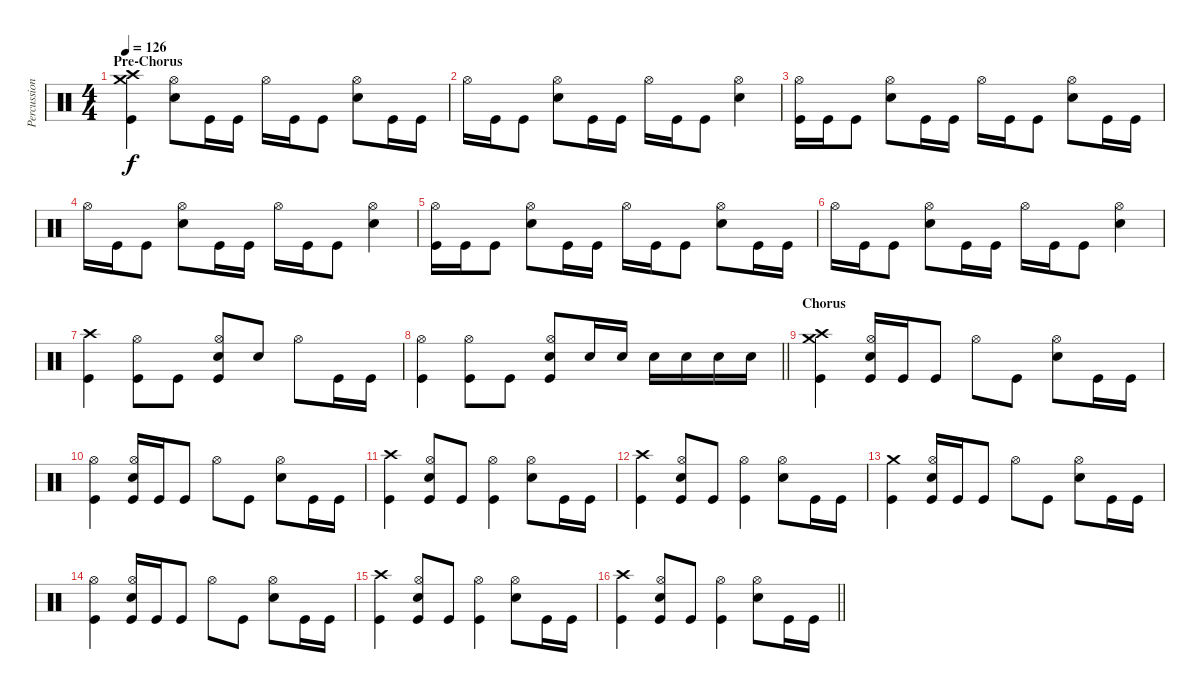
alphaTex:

\track ("Percussion" "Percussion") {instrument percussion}
\staff {score}
\articulation defaults
\ts (4 4)
\section ("" "Pre-Chorus")
\tempo 126
\clef neutral
\ks c
("Crash high (hit)" "Crash medium (hit)" "Kick (hit)").4{dy f} ("Hi-Hat (open)" "Electric Snare (hit)").8 "Kick (hit)".16 "Kick (hit)".16 "Hi-Hat (open)".16 "Kick (hit)".16 "Kick (hit)".8 ("Hi-Hat (open)" "Electric Snare (hit)").8 "Kick (hit)".16 "Kick (hit)".16 |
"Hi-Hat (open)".16 "Kick (hit)".16 "Kick (hit)".8 ("Hi-Hat (open)" "Electric Snare (hit)").8 "Kick (hit)".16 "Kick (hit)".16 "Hi-Hat (open)".16 "Kick (hit)".16 "Kick (hit)".8 ("Hi-Hat (open)" "Electric Snare (hit)").4 |
("Hi-Hat (open)" "Kick (hit)").16 "Kick (hit)".16 "Kick (hit)".8 ("Hi-Hat (open)" "Electric Snare (hit)").8 "Kick (hit)".16 "Kick (hit)".16 "Hi-Hat (open)".16 "Kick (hit)".16 "Kick (hit)".8 ("Hi-Hat (open)" "Electric Snare (hit)").8 "Kick (hit)".16 "Kick (hit)".16 |
"Hi-Hat (open)".16 "Kick (hit)".16 "Kick (hit)".8 ("Hi-Hat (open)" "Electric Snare (hit)").8 "Kick (hit)".16 "Kick (hit)".16 "Hi-Hat (open)".16 "Kick (hit)".16 "Kick (hit)".8 ("Hi-Hat (open)" "Electric Snare (hit)").4 |
("Hi-Hat (open)" "Kick (hit)").16 "Kick (hit)".16 "Kick (hit)".8 ("Hi-Hat (open)" "Electric Snare (hit)").8 "Kick (hit)".16 "Kick (hit)".16 "Hi-Hat (open)".16 "Kick (hit)".16 "Kick (hit)".8 ("Hi-Hat (open)" "Electric Snare (hit)").8 "Kick (hit)".16 "Kick (hit)".16 |
"Hi-Hat (open)".16 "Kick (hit)".16 "Kick (hit)".8 ("Hi-Hat (open)" "Electric Snare (hit)").8 "Kick (hit)".16 "Kick (hit)".16 "Hi-Hat (open)".16 "Kick (hit)".16 "Kick (hit)".8 ("Hi-Hat (open)" "Electric Snare (hit)").4 |
("Crash high (hit)" "Kick (hit)").4 ("Hi-Hat (open)" "Kick (hit)").8 "Kick (hit)".8 ("Hi-Hat (open)" "Electric Snare (hit)" "Kick (hit)").8 "Electric Snare (hit)".8 "Hi-Hat (open)".8 "Kick (hit)".16 "Kick (hit)".16 |
\barLineRight lightlight
("Hi-Hat (open)" "Kick (hit)").4 ("Hi-Hat (open)" "Kick (hit)").8 "Kick (hit)".8 ("Hi-Hat (open)" "Electric Snare (hit)" "Kick (hit)").8 "Electric Snare (hit)".16 "Electric Snare (hit)".16 "Electric Snare (hit)".16 "Electric Snare (hit)".16 "Electric Snare (hit)".16 "Electric Snare (hit)".16 |
\section ("" "Chorus")
("Crash high (hit)" "Crash medium (hit)" "Kick (hit)").4 ("Hi-Hat (open)" "Electric Snare (hit)" "Kick (hit)").16 "Kick (hit)".16 "Kick (hit)".8 "Hi-Hat (open)".8 "Kick (hit)".8 ("Hi-Hat (open)" "Electric Snare (hit)").8 "Kick (hit)".16 "Kick (hit)".16 |
("Hi-Hat (open)" "Kick (hit)").4 ("Hi-Hat (open)" "Electric Snare (hit)" "Kick (hit)").16 "Kick (hit)".16 "Kick (hit)".8 "Hi-Hat (open)".8 "Kick (hit)".8 ("Hi-Hat (open)" "Electric Snare (hit)").8 "Kick (hit)".16 "Kick (hit)".16 |
("Crash high (hit)" "Kick (hit)").4 ("Hi-Hat (open)" "Electric Snare (hit)" "Kick (hit)").8 "Kick (hit)".8 ("Hi-Hat (open)" "Kick (hit)").4 ("Hi-Hat (open)" "Electric Snare (hit)").8 "Kick (hit)".16 "Kick (hit)".16 |
("Crash high (hit)" "Kick (hit)").4 ("Hi-Hat (open)" "Electric Snare (hit)" "Kick (hit)").8 "Kick (hit)".8 ("Hi-Hat (open)" "Kick (hit)").4 ("Hi-Hat (open)" "Electric Snare (hit)").8 "Kick (hit)".16 "Kick (hit)".16 |
("Crash medium (hit)" "Kick (hit)").4 ("Hi-Hat (open)" "Electric Snare (hit)" "Kick (hit)").16 "Kick (hit)".16 "Kick (hit)".8 "Hi-Hat (open)".8 "Kick (hit)".8 ("Hi-Hat (open)" "Electric Snare (hit)").8 "Kick (hit)".16 "Kick (hit)".16 |
("Hi-Hat (open)" "Kick (hit)").4 ("Hi-Hat (open)" "Electric Snare (hit)" "Kick (hit)").16 "Kick (hit)".16 "Kick (hit)".8 "Hi-Hat (open)".8 "Kick (hit)".8 ("Hi-Hat (open)" "Electric Snare (hit)").8 "Kick (hit)".16 "Kick (hit)".16 |
("Crash high (hit)" "Kick (hit)").4 ("Hi-Hat (open)" "Electric Snare (hit)" "Kick (hit)").8 "Kick (hit)".8 ("Hi-Hat (open)" "Kick (hit)").4 ("Hi-Hat (open)" "Electric Snare (hit)").8 "Kick (hit)".16 "Kick (hit)".16 |
\barLineRight lightlight
("Crash high (hit)" "Kick (hit)").4 ("Hi-Hat (open)" "Electric Snare (hit)" "Kick (hit)").8 "Kick (hit)".8 ("Hi-Hat (open)" "Kick (hit)").4 ("Hi-Hat (open)" "Electric Snare (hit)").8 "Kick (hit)".16 "Kick (hit)".16
